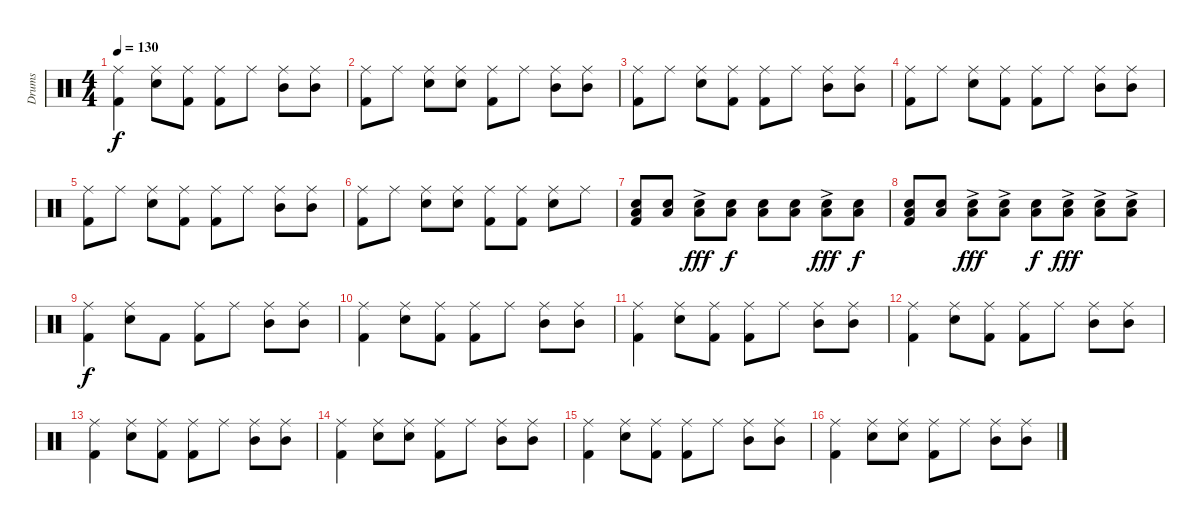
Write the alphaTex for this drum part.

\track ("Drums" "Drums") {instrument percussion}
\staff {score}
\articulation defaults
\ts (4 4)
\tempo 130
\clef neutral
\ks c
("Ride (middle)" "Kick (hit) 2").4{dy f} ("Ride (middle)" "Snare (hit) 2").8 ("Ride (middle)" "Kick (hit) 2").8 ("Ride (middle)" "Kick (hit) 2").8 "Ride (middle)".8 ("Ride (middle)" "Mid Tom (hit)").8 ("Ride (middle)" "Mid Tom (hit)").8 |
("Ride (middle)" "Kick (hit) 2").8 "Ride (middle)".8 ("Ride (middle)" "Snare (hit) 2").8 ("Ride (middle)" "Snare (hit) 2").8 ("Ride (middle)" "Kick (hit) 2").8 "Ride (middle)".8 ("Ride (middle)" "Mid Tom (hit)").8 ("Ride (middle)" "Mid Tom (hit)").8 |
("Ride (middle)" "Kick (hit) 2").8 "Ride (middle)".8 ("Ride (middle)" "Snare (hit) 2").8 ("Ride (middle)" "Kick (hit) 2").8 ("Ride (middle)" "Kick (hit) 2").8 "Ride (middle)".8 ("Ride (middle)" "Mid Tom (hit)").8 ("Ride (middle)" "Mid Tom (hit)").8 |
("Ride (middle)" "Kick (hit) 2").8 "Ride (middle)".8 ("Ride (middle)" "Snare (hit) 2").8 ("Ride (middle)" "Kick (hit) 2").8 ("Ride (middle)" "Kick (hit) 2").8 "Ride (middle)".8 ("Ride (middle)" "Mid Tom (hit)").8 ("Ride (middle)" "Mid Tom (hit)").8 |
("Ride (middle)" "Kick (hit) 2").8 "Ride (middle)".8 ("Ride (middle)" "Snare (hit) 2").8 ("Ride (middle)" "Kick (hit) 2").8 ("Ride (middle)" "Kick (hit) 2").8 "Ride (middle)".8 ("Ride (middle)" "Mid Tom (hit)").8 ("Ride (middle)" "Mid Tom (hit)").8 |
("Ride (middle)" "Kick (hit) 2").8 "Ride (middle)".8 ("Ride (middle)" "Snare (hit) 2").8 ("Ride (middle)" "Snare (hit) 2").8 ("Ride (middle)" "Kick (hit) 2").8 ("Ride (middle)" "Kick (hit) 2").8 ("Ride (middle)" "Snare (hit) 2").8 "Ride (middle)".8 |
("Low Tom (hit)" "Snare (hit) 2" "Kick (hit) 2").8 ("Low Tom (hit)" "Snare (hit) 2").8 ("Low Tom (hit)"{ac} "Snare (hit) 2"{ac}).8{dy fff} ("Low Tom (hit)" "Snare (hit) 2").8{dy f} ("Low Tom (hit)" "Snare (hit) 2").8 ("Low Tom (hit)" "Snare (hit) 2").8 ("Low Tom (hit)"{ac} "Snare (hit) 2"{ac}).8{dy fff} ("Low Tom (hit)" "Snare (hit) 2").8{dy f} |
("Low Tom (hit)" "Snare (hit) 2" "Kick (hit) 2").8 ("Low Tom (hit)" "Snare (hit) 2").8 ("Low Tom (hit)"{ac} "Snare (hit) 2"{ac}).8{dy fff} ("Low Tom (hit)"{ac} "Snare (hit) 2"{ac}).8 ("Low Tom (hit)" "Snare (hit) 2").8{dy f} ("Low Tom (hit)"{ac} "Snare (hit) 2"{ac}).8{dy fff} ("Low Tom (hit)"{ac} "Snare (hit) 2"{ac}).8 ("Low Tom (hit)"{ac} "Snare (hit) 2"{ac}).8 |
("Ride (middle)" "Kick (hit) 2").4{dy f} ("Ride (middle)" "Snare (hit) 2").8 "Kick (hit) 2".8 ("Ride (middle)" "Kick (hit) 2").8 "Ride (middle)".8 ("Ride (middle)" "Mid Tom (hit)").8 ("Ride (middle)" "Mid Tom (hit)").8 |
("Ride (middle)" "Kick (hit) 2").4 ("Ride (middle)" "Snare (hit) 2").8 ("Ride (middle)" "Kick (hit) 2").8 ("Ride (middle)" "Kick (hit) 2").8 "Ride (middle)".8 ("Ride (middle)" "Mid Tom (hit)").8 ("Ride (middle)" "Mid Tom (hit)").8 |
("Ride (middle)" "Kick (hit) 2").4 ("Ride (middle)" "Snare (hit) 2").8 ("Ride (middle)" "Kick (hit) 2").8 ("Ride (middle)" "Kick (hit) 2").8 "Ride (middle)".8 ("Ride (middle)" "Mid Tom (hit)").8 ("Ride (middle)" "Mid Tom (hit)").8 |
("Ride (middle)" "Kick (hit) 2").4 ("Ride (middle)" "Snare (hit) 2").8 ("Ride (middle)" "Kick (hit) 2").8 ("Ride (middle)" "Kick (hit) 2").8 "Ride (middle)".8 ("Ride (middle)" "Mid Tom (hit)").8 ("Ride (middle)" "Mid Tom (hit)").8 |
("Ride (middle)" "Kick (hit) 2").4 ("Ride (middle)" "Snare (hit) 2").8 ("Ride (middle)" "Kick (hit) 2").8 ("Ride (middle)" "Kick (hit) 2").8 "Ride (middle)".8 ("Ride (middle)" "Mid Tom (hit)").8 ("Ride (middle)" "Mid Tom (hit)").8 |
("Ride (middle)" "Kick (hit) 2").4 ("Ride (middle)" "Snare (hit) 2").8 ("Ride (middle)" "Snare (hit) 2").8 ("Ride (middle)" "Kick (hit) 2").8 "Ride (middle)".8 ("Ride (middle)" "Mid Tom (hit)").8 ("Ride (middle)" "Mid Tom (hit)").8 |
("Ride (middle)" "Kick (hit) 2").4 ("Ride (middle)" "Snare (hit) 2").8 ("Ride (middle)" "Kick (hit) 2").8 ("Ride (middle)" "Kick (hit) 2").8 "Ride (middle)".8 ("Ride (middle)" "Mid Tom (hit)").8 ("Ride (middle)" "Mid Tom (hit)").8 |
("Ride (middle)" "Kick (hit) 2").4 ("Ride (middle)" "Snare (hit) 2").8 ("Ride (middle)" "Snare (hit) 2").8 ("Ride (middle)" "Kick (hit) 2").8 "Ride (middle)".8 ("Ride (middle)" "Mid Tom (hit)").8 ("Ride (middle)" "Mid Tom (hit)").8
